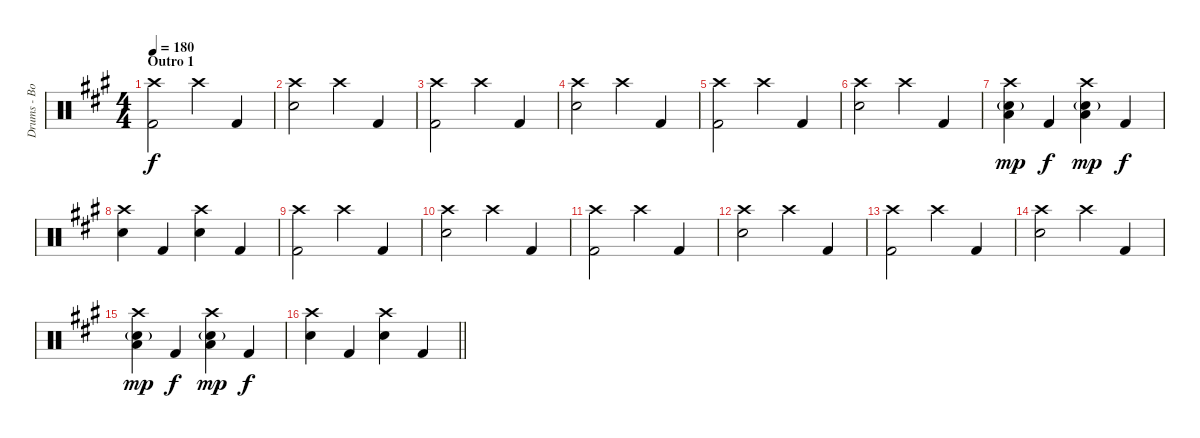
\track ("Drums - Bob Bryar" "Drums - Bo") {instrument percussion}
\staff {score}
\articulation defaults
\ts (4 4)
\section ("" "Outro 1")
\tempo 180
\clef neutral
\ks a
("Kick (hit) 2" "Crash high (hit)").2{dy f} "Crash high (hit)".4 "Kick (hit) 2".4 |
("Electric Snare (hit)" "Crash high (hit)").2 "Crash high (hit)".4 "Kick (hit) 2".4 |
("Kick (hit) 2" "Crash high (hit)").2 "Crash high (hit)".4 "Kick (hit) 2".4 |
("Electric Snare (hit)" "Crash high (hit)").2 "Crash high (hit)".4 "Kick (hit) 2".4 |
("Kick (hit) 2" "Crash high (hit)").2 "Crash high (hit)".4 "Kick (hit) 2".4 |
("Electric Snare (hit)" "Crash high (hit)").2 "Crash high (hit)".4 "Kick (hit) 2".4 |
("Electric Snare (hit)"{g} "Crash high (hit)" "Low Tom (hit)").4{dy mp} "Kick (hit) 2".4{dy f} ("Electric Snare (hit)"{g} "Crash high (hit)" "Low Tom (hit)").4{dy mp} "Kick (hit) 2".4{dy f} |
("Electric Snare (hit)" "Crash high (hit)").4 "Kick (hit) 2".4 ("Electric Snare (hit)" "Crash high (hit)").4 "Kick (hit) 2".4 |
("Kick (hit) 2" "Crash high (hit)").2 "Crash high (hit)".4 "Kick (hit) 2".4 |
("Electric Snare (hit)" "Crash high (hit)").2 "Crash high (hit)".4 "Kick (hit) 2".4 |
("Kick (hit) 2" "Crash high (hit)").2 "Crash high (hit)".4 "Kick (hit) 2".4 |
("Electric Snare (hit)" "Crash high (hit)").2 "Crash high (hit)".4 "Kick (hit) 2".4 |
("Kick (hit) 2" "Crash high (hit)").2 "Crash high (hit)".4 "Kick (hit) 2".4 |
("Electric Snare (hit)" "Crash high (hit)").2 "Crash high (hit)".4 "Kick (hit) 2".4 |
("Electric Snare (hit)"{g} "Crash high (hit)" "Low Tom (hit)").4{dy mp} "Kick (hit) 2".4{dy f} ("Electric Snare (hit)"{g} "Crash high (hit)" "Low Tom (hit)").4{dy mp} "Kick (hit) 2".4{dy f} |
\barLineRight lightlight
("Electric Snare (hit)" "Crash high (hit)").4 "Kick (hit) 2".4 ("Electric Snare (hit)" "Crash high (hit)").4 "Kick (hit) 2".4
